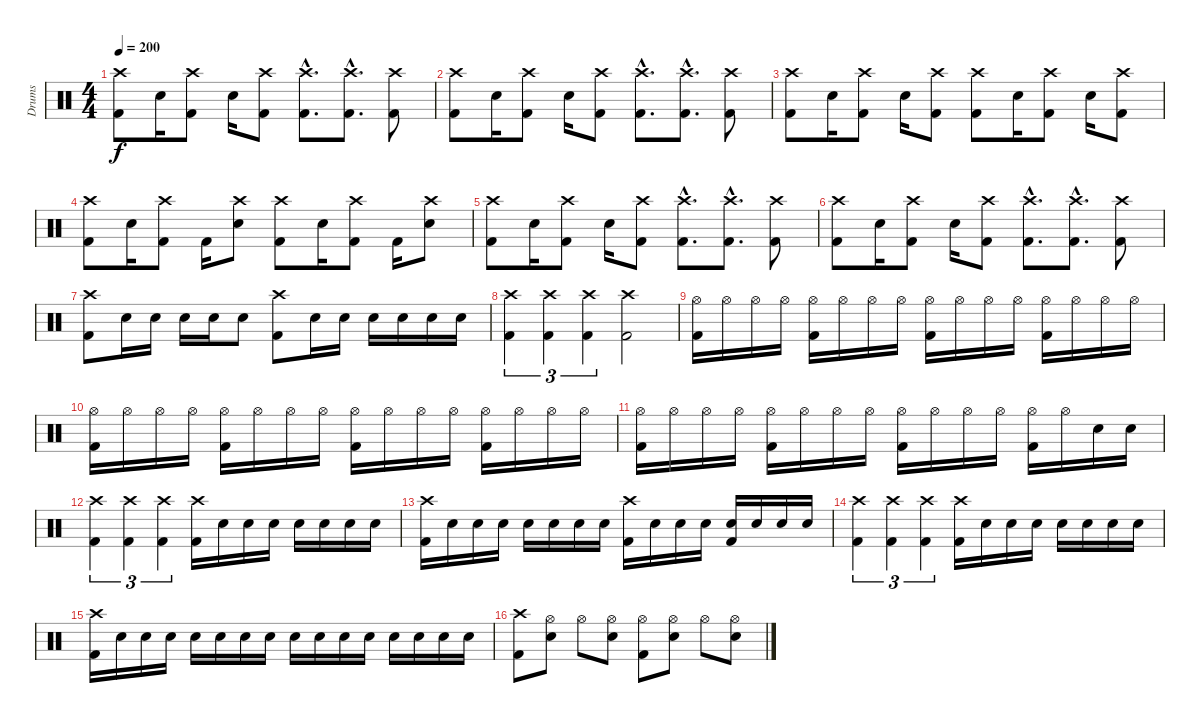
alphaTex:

\track ("Drums" "Drums") {instrument percussion}
\staff {score}
\articulation defaults
\ts (4 4)
\tempo 200
\clef neutral
\ks c
("Kick (hit) 2" "Crash high (hit)").8{dy f} "Electric Snare (hit)".16 ("Kick (hit) 2" "Crash high (hit)").8 "Electric Snare (hit)".16 ("Kick (hit) 2" "Crash high (hit)").8 ("Kick (hit) 2"{hac} "Crash high (hit)"{hac}).8{d} ("Kick (hit) 2"{hac} "Crash high (hit)"{hac}).8{d} ("Kick (hit) 2" "Crash high (hit)").8 |
("Kick (hit) 2" "Crash high (hit)").8 "Electric Snare (hit)".16 ("Kick (hit) 2" "Crash high (hit)").8 "Electric Snare (hit)".16 ("Kick (hit) 2" "Crash high (hit)").8 ("Kick (hit) 2"{hac} "Crash high (hit)"{hac}).8{d} ("Kick (hit) 2"{hac} "Crash high (hit)"{hac}).8{d} ("Kick (hit) 2" "Crash high (hit)").8 |
("Kick (hit) 2" "Crash high (hit)").8 "Electric Snare (hit)".16 ("Kick (hit) 2" "Crash high (hit)").8 "Electric Snare (hit)".16 ("Kick (hit) 2" "Crash high (hit)").8 ("Kick (hit) 2" "Crash high (hit)").8 "Electric Snare (hit)".16 ("Kick (hit) 2" "Crash high (hit)").8 "Electric Snare (hit)".16 ("Kick (hit) 2" "Crash high (hit)").8 |
("Kick (hit) 2" "Crash high (hit)").8 "Electric Snare (hit)".16 ("Kick (hit) 2" "Crash high (hit)").8 "Kick (hit) 2".16 ("Electric Snare (hit)" "Crash high (hit)").8 ("Kick (hit) 2" "Crash high (hit)").8 "Electric Snare (hit)".16 ("Kick (hit) 2" "Crash high (hit)").8 "Kick (hit) 2".16 ("Electric Snare (hit)" "Crash high (hit)").8 |
("Kick (hit) 2" "Crash high (hit)").8 "Electric Snare (hit)".16 ("Kick (hit) 2" "Crash high (hit)").8 "Electric Snare (hit)".16 ("Kick (hit) 2" "Crash high (hit)").8 ("Kick (hit) 2"{hac} "Crash high (hit)"{hac}).8{d} ("Kick (hit) 2"{hac} "Crash high (hit)"{hac}).8{d} ("Kick (hit) 2" "Crash high (hit)").8 |
("Kick (hit) 2" "Crash high (hit)").8 "Electric Snare (hit)".16 ("Kick (hit) 2" "Crash high (hit)").8 "Electric Snare (hit)".16 ("Kick (hit) 2" "Crash high (hit)").8 ("Kick (hit) 2"{hac} "Crash high (hit)"{hac}).8{d} ("Kick (hit) 2"{hac} "Crash high (hit)"{hac}).8{d} ("Kick (hit) 2" "Crash high (hit)").8 |
("Kick (hit) 2" "Crash high (hit)").8 "Electric Snare (hit)".16 "Electric Snare (hit)".16 "Electric Snare (hit)".16 "Electric Snare (hit)".16 "Electric Snare (hit)".8 ("Kick (hit) 2" "Crash high (hit)").8 "Electric Snare (hit)".16 "Electric Snare (hit)".16 "Electric Snare (hit)".16 "Electric Snare (hit)".16 "Electric Snare (hit)".16 "Electric Snare (hit)".16 |
("Kick (hit) 2" "Crash high (hit)").4{tu (3 2)} ("Kick (hit) 2" "Crash high (hit)").4{tu (3 2)} ("Kick (hit) 2" "Crash high (hit)").4{tu (3 2)} ("Kick (hit) 2" "Crash high (hit)").2 |
("Kick (hit) 2" "Hi-Hat (open)").16 "Hi-Hat (open)".16 "Hi-Hat (open)".16 "Hi-Hat (open)".16 ("Kick (hit) 2" "Hi-Hat (open)").16 "Hi-Hat (open)".16 "Hi-Hat (open)".16 "Hi-Hat (open)".16 ("Kick (hit) 2" "Hi-Hat (open)").16 "Hi-Hat (open)".16 "Hi-Hat (open)".16 "Hi-Hat (open)".16 ("Kick (hit) 2" "Hi-Hat (open)").16 "Hi-Hat (open)".16 "Hi-Hat (open)".16 "Hi-Hat (open)".16 |
("Kick (hit) 2" "Hi-Hat (open)").16 "Hi-Hat (open)".16 "Hi-Hat (open)".16 "Hi-Hat (open)".16 ("Kick (hit) 2" "Hi-Hat (open)").16 "Hi-Hat (open)".16 "Hi-Hat (open)".16 "Hi-Hat (open)".16 ("Kick (hit) 2" "Hi-Hat (open)").16 "Hi-Hat (open)".16 "Hi-Hat (open)".16 "Hi-Hat (open)".16 ("Kick (hit) 2" "Hi-Hat (open)").16 "Hi-Hat (open)".16 "Hi-Hat (open)".16 "Hi-Hat (open)".16 |
("Kick (hit) 2" "Hi-Hat (open)").16 "Hi-Hat (open)".16 "Hi-Hat (open)".16 "Hi-Hat (open)".16 ("Kick (hit) 2" "Hi-Hat (open)").16 "Hi-Hat (open)".16 "Hi-Hat (open)".16 "Hi-Hat (open)".16 ("Kick (hit) 2" "Hi-Hat (open)").16 "Hi-Hat (open)".16 "Hi-Hat (open)".16 "Hi-Hat (open)".16 ("Kick (hit) 2" "Hi-Hat (open)").16 "Hi-Hat (open)".16 "Electric Snare (hit)".16 "Electric Snare (hit)".16 |
("Kick (hit) 2" "Crash high (hit)").4{tu (3 2)} ("Kick (hit) 2" "Crash high (hit)").4{tu (3 2)} ("Kick (hit) 2" "Crash high (hit)").4{tu (3 2)} ("Kick (hit) 2" "Crash high (hit)").16 "Electric Snare (hit)".16 "Electric Snare (hit)".16 "Electric Snare (hit)".16 "Electric Snare (hit)".16 "Electric Snare (hit)".16 "Electric Snare (hit)".16 "Electric Snare (hit)".16 |
("Kick (hit) 2" "Crash high (hit)").16 "Electric Snare (hit)".16 "Electric Snare (hit)".16 "Electric Snare (hit)".16 "Electric Snare (hit)".16 "Electric Snare (hit)".16 "Electric Snare (hit)".16 "Electric Snare (hit)".16 ("Kick (hit) 2" "Crash high (hit)").16 "Electric Snare (hit)".16 "Electric Snare (hit)".16 "Electric Snare (hit)".16 ("Kick (hit) 2" "Electric Snare (hit)").16 "Electric Snare (hit)".16 "Electric Snare (hit)".16 "Electric Snare (hit)".16 |
("Kick (hit) 2" "Crash high (hit)").4{tu (3 2)} ("Kick (hit) 2" "Crash high (hit)").4{tu (3 2)} ("Kick (hit) 2" "Crash high (hit)").4{tu (3 2)} ("Kick (hit) 2" "Crash high (hit)").16 "Electric Snare (hit)".16 "Electric Snare (hit)".16 "Electric Snare (hit)".16 "Electric Snare (hit)".16 "Electric Snare (hit)".16 "Electric Snare (hit)".16 "Electric Snare (hit)".16 |
("Kick (hit) 2" "Crash high (hit)").16 "Electric Snare (hit)".16 "Electric Snare (hit)".16 "Electric Snare (hit)".16 "Electric Snare (hit)".16 "Electric Snare (hit)".16 "Electric Snare (hit)".16 "Electric Snare (hit)".16 "Electric Snare (hit)".16 "Electric Snare (hit)".16 "Electric Snare (hit)".16 "Electric Snare (hit)".16 "Electric Snare (hit)".16 "Electric Snare (hit)".16 "Electric Snare (hit)".16 "Electric Snare (hit)".16 |
("Kick (hit) 2" "Crash high (hit)").8 ("Electric Snare (hit)" "Hi-Hat (open)").8 "Hi-Hat (open)".8 ("Electric Snare (hit)" "Hi-Hat (open)").8 ("Kick (hit) 2" "Hi-Hat (open)").8 ("Electric Snare (hit)" "Hi-Hat (open)").8 "Hi-Hat (open)".8 ("Electric Snare (hit)" "Hi-Hat (open)").8
